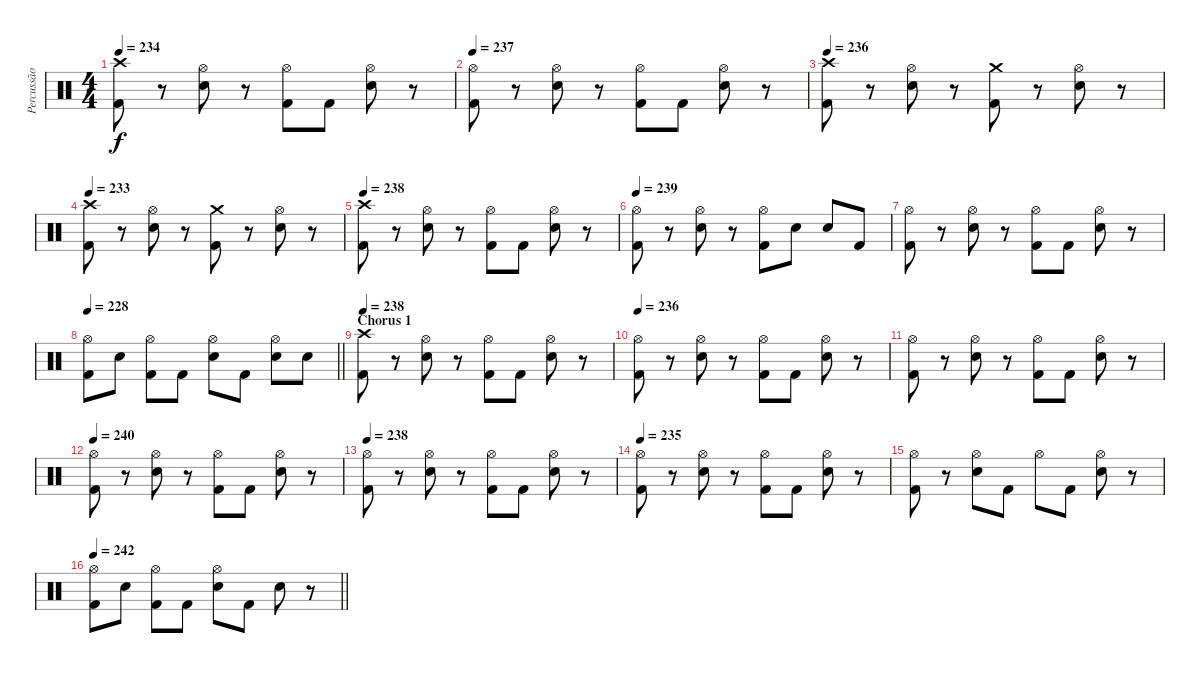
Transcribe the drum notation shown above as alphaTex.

\track ("Percussão" "Percussão") {instrument percussion}
\staff {score}
\articulation defaults
\ts (4 4)
\tempo 234
\clef neutral
\ks c
("Crash high (hit)" "Kick (hit) 2").8{dy f} r.8 ("Hi-Hat (open)" "Electric Snare (hit)").8 r.8 ("Hi-Hat (open)" "Kick (hit) 2").8 "Kick (hit) 2".8 ("Hi-Hat (open)" "Electric Snare (hit)").8 r.8 |
\tempo 237
("Hi-Hat (open)" "Kick (hit) 2").8 r.8 ("Hi-Hat (open)" "Electric Snare (hit)").8 r.8 ("Hi-Hat (open)" "Kick (hit) 2").8 "Kick (hit) 2".8 ("Hi-Hat (open)" "Electric Snare (hit)").8 r.8 |
\tempo 236
("Crash high (hit)" "Kick (hit) 2").8 r.8 ("Hi-Hat (open)" "Electric Snare (hit)").8 r.8 ("Crash medium (hit)" "Kick (hit) 2").8 r.8 ("Hi-Hat (open)" "Electric Snare (hit)").8 r.8 |
\tempo 233
("Crash high (hit)" "Kick (hit) 2").8 r.8 ("Hi-Hat (open)" "Electric Snare (hit)").8 r.8 ("Crash medium (hit)" "Kick (hit) 2").8 r.8 ("Hi-Hat (open)" "Electric Snare (hit)").8 r.8 |
\tempo 238
("Crash high (hit)" "Kick (hit) 2").8 r.8 ("Hi-Hat (open)" "Electric Snare (hit)").8 r.8 ("Hi-Hat (open)" "Kick (hit) 2").8 "Kick (hit) 2".8 ("Hi-Hat (open)" "Electric Snare (hit)").8 r.8 |
\tempo 239
("Hi-Hat (open)" "Kick (hit) 2").8 r.8 ("Hi-Hat (open)" "Electric Snare (hit)").8 r.8 ("Hi-Hat (open)" "Kick (hit) 2").8 "Electric Snare (hit)".8 "Electric Snare (hit)".8 "Kick (hit) 2".8 |
("Hi-Hat (open)" "Kick (hit) 2").8 r.8 ("Hi-Hat (open)" "Electric Snare (hit)").8 r.8 ("Hi-Hat (open)" "Kick (hit) 2").8 "Kick (hit) 2".8 ("Hi-Hat (open)" "Electric Snare (hit)").8 r.8 |
\tempo 228
\barLineRight lightlight
("Hi-Hat (open)" "Kick (hit) 2").8 "Electric Snare (hit)".8 ("Hi-Hat (open)" "Kick (hit) 2").8 "Kick (hit) 2".8 ("Hi-Hat (open)" "Electric Snare (hit)").8 "Kick (hit) 2".8 ("Hi-Hat (open)" "Electric Snare (hit)").8 "Electric Snare (hit)".8 |
\section ("" "Chorus 1")
\tempo 238
("Crash high (hit)" "Kick (hit) 2").8 r.8 ("Hi-Hat (open)" "Electric Snare (hit)").8 r.8 ("Hi-Hat (open)" "Kick (hit) 2").8 "Kick (hit) 2".8 ("Hi-Hat (open)" "Electric Snare (hit)").8 r.8 |
\tempo 236
("Hi-Hat (open)" "Kick (hit) 2").8 r.8 ("Hi-Hat (open)" "Electric Snare (hit)").8 r.8 ("Hi-Hat (open)" "Kick (hit) 2").8 "Kick (hit) 2".8 ("Hi-Hat (open)" "Electric Snare (hit)").8 r.8 |
("Hi-Hat (open)" "Kick (hit) 2").8 r.8 ("Hi-Hat (open)" "Electric Snare (hit)").8 r.8 ("Hi-Hat (open)" "Kick (hit) 2").8 "Kick (hit) 2".8 ("Hi-Hat (open)" "Electric Snare (hit)").8 r.8 |
\tempo 240
("Hi-Hat (open)" "Kick (hit) 2").8 r.8 ("Hi-Hat (open)" "Electric Snare (hit)").8 r.8 ("Hi-Hat (open)" "Kick (hit) 2").8 "Kick (hit) 2".8 ("Hi-Hat (open)" "Electric Snare (hit)").8 r.8 |
\tempo 238
("Hi-Hat (open)" "Kick (hit) 2").8 r.8 ("Hi-Hat (open)" "Electric Snare (hit)").8 r.8 ("Hi-Hat (open)" "Kick (hit) 2").8 "Kick (hit) 2".8 ("Hi-Hat (open)" "Electric Snare (hit)").8 r.8 |
\tempo 235
("Hi-Hat (open)" "Kick (hit) 2").8 r.8 ("Hi-Hat (open)" "Electric Snare (hit)").8 r.8 ("Hi-Hat (open)" "Kick (hit) 2").8 "Kick (hit) 2".8 ("Hi-Hat (open)" "Electric Snare (hit)").8 r.8 |
("Hi-Hat (open)" "Kick (hit) 2").8 r.8 ("Hi-Hat (open)" "Electric Snare (hit)").8 "Kick (hit) 2".8 "Hi-Hat (open)".8 "Kick (hit) 2".8 ("Hi-Hat (open)" "Electric Snare (hit)").8 r.8 |
\tempo 242
\barLineRight lightlight
("Hi-Hat (open)" "Kick (hit) 2").8 "Electric Snare (hit)".8 ("Hi-Hat (open)" "Kick (hit) 2").8 "Kick (hit) 2".8 ("Hi-Hat (open)" "Electric Snare (hit)").8 "Kick (hit) 2".8 "Electric Snare (hit)".8 r.8
